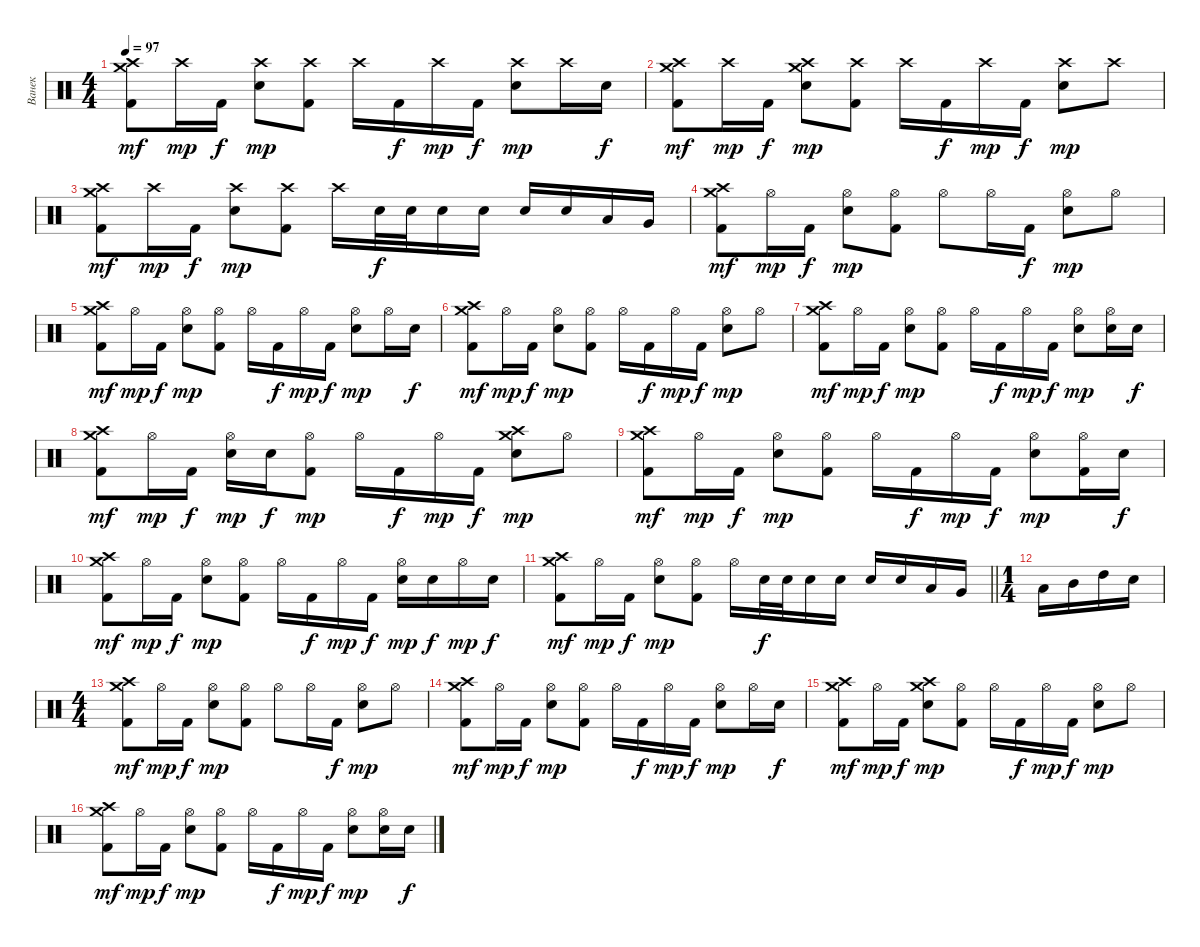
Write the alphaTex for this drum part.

\track ("Ванек" "Ванек") {instrument percussion}
\staff {score}
\articulation defaults
\ts (4 4)
\tempo 97
\clef neutral
\ks c
("Crash high (hit)" "Crash medium (hit)" "Kick (hit) 2").8{dy mf} "Crash high (hit)".16{dy mp} "Kick (hit) 2".16{dy f} ("Crash high (hit)" "Snare (hit) 2").8{dy mp} ("Crash high (hit)" "Kick (hit) 2").8 "Crash high (hit)".16 "Kick (hit) 2".16{dy f} "Crash high (hit)".16{dy mp} "Kick (hit) 2".16{dy f} ("Crash high (hit)" "Snare (hit) 2").8{dy mp} "Crash high (hit)".16 "Snare (hit) 2".16{dy f} |
("Crash high (hit)" "Crash medium (hit)" "Kick (hit) 2").8{dy mf} "Crash high (hit)".16{dy mp} "Kick (hit) 2".16{dy f} ("Crash high (hit)" "Crash medium (hit)" "Snare (hit) 2").8{dy mp} ("Crash high (hit)" "Kick (hit) 2").8 "Crash high (hit)".16 "Kick (hit) 2".16{dy f} "Crash high (hit)".16{dy mp} "Kick (hit) 2".16{dy f} ("Crash high (hit)" "Snare (hit) 2").8{dy mp} "Crash high (hit)".8 |
("Crash high (hit)" "Crash medium (hit)" "Kick (hit) 2").8{dy mf} "Crash high (hit)".16{dy mp} "Kick (hit) 2".16{dy f} ("Crash high (hit)" "Snare (hit) 2").8{dy mp} ("Crash high (hit)" "Kick (hit) 2").8 "Crash high (hit)".16 "Snare (hit) 2".32{dy f} "Snare (hit) 2".32 "Snare (hit) 2".16 "Snare (hit) 2".16 "Snare (hit) 2".16 "Snare (hit) 2".16 "Low Floor Tom (hit)".16 "Very Low Tom (hit)".16 |
("Crash high (hit)" "Crash medium (hit)" "Kick (hit) 2").8{dy mf} "Hi-Hat (open)".16{dy mp} "Kick (hit) 2".16{dy f} ("Hi-Hat (open)" "Snare (hit) 2").8{dy mp} ("Hi-Hat (open)" "Kick (hit) 2").8 "Hi-Hat (open)".8 "Hi-Hat (open)".16 "Kick (hit) 2".16{dy f} ("Hi-Hat (open)" "Snare (hit) 2").8{dy mp} "Hi-Hat (open)".8 |
("Crash high (hit)" "Crash medium (hit)" "Kick (hit) 2").8{dy mf} "Hi-Hat (open)".16{dy mp} "Kick (hit) 2".16{dy f} ("Hi-Hat (open)" "Snare (hit) 2").8{dy mp} ("Hi-Hat (open)" "Kick (hit) 2").8 "Hi-Hat (open)".16 "Kick (hit) 2".16{dy f} "Hi-Hat (open)".16{dy mp} "Kick (hit) 2".16{dy f} ("Hi-Hat (open)" "Snare (hit) 2").8{dy mp} "Hi-Hat (open)".16 "Snare (hit) 2".16{dy f} |
("Crash high (hit)" "Crash medium (hit)" "Kick (hit) 2").8{dy mf} "Hi-Hat (open)".16{dy mp} "Kick (hit) 2".16{dy f} ("Hi-Hat (open)" "Snare (hit) 2").8{dy mp} ("Hi-Hat (open)" "Kick (hit) 2").8 "Hi-Hat (open)".16 "Kick (hit) 2".16{dy f} "Hi-Hat (open)".16{dy mp} "Kick (hit) 2".16{dy f} ("Hi-Hat (open)" "Snare (hit) 2").8{dy mp} "Hi-Hat (open)".8 |
("Crash high (hit)" "Crash medium (hit)" "Kick (hit) 2").8{dy mf} "Hi-Hat (open)".16{dy mp} "Kick (hit) 2".16{dy f} ("Hi-Hat (open)" "Snare (hit) 2").8{dy mp} ("Hi-Hat (open)" "Kick (hit) 2").8 "Hi-Hat (open)".16 "Kick (hit) 2".16{dy f} "Hi-Hat (open)".16{dy mp} "Kick (hit) 2".16{dy f} ("Hi-Hat (open)" "Snare (hit) 2").8{dy mp} ("Hi-Hat (open)" "Snare (hit) 2").16 "Snare (hit) 2".16{dy f} |
("Crash high (hit)" "Crash medium (hit)" "Kick (hit) 2").8{dy mf} "Hi-Hat (open)".16{dy mp} "Kick (hit) 2".16{dy f} ("Hi-Hat (open)" "Snare (hit) 2").16{dy mp} "Snare (hit) 2".16{dy f} ("Hi-Hat (open)" "Kick (hit) 2").8{dy mp} "Hi-Hat (open)".16 "Kick (hit) 2".16{dy f} "Hi-Hat (open)".16{dy mp} "Kick (hit) 2".16{dy f} ("Crash high (hit)" "Crash medium (hit)" "Snare (hit) 2").8{dy mp} "Hi-Hat (open)".8 |
("Crash high (hit)" "Crash medium (hit)" "Kick (hit) 2").8{dy mf} "Hi-Hat (open)".16{dy mp} "Kick (hit) 2".16{dy f} ("Hi-Hat (open)" "Snare (hit) 2").8{dy mp} ("Hi-Hat (open)" "Kick (hit) 2").8 "Hi-Hat (open)".16 "Kick (hit) 2".16{dy f} "Hi-Hat (open)".16{dy mp} "Kick (hit) 2".16{dy f} ("Hi-Hat (open)" "Snare (hit) 2").8{dy mp} ("Hi-Hat (open)" "Kick (hit) 2").16 "Snare (hit) 2".16{dy f} |
("Crash high (hit)" "Crash medium (hit)" "Kick (hit) 2").8{dy mf} "Hi-Hat (open)".16{dy mp} "Kick (hit) 2".16{dy f} ("Hi-Hat (open)" "Snare (hit) 2").8{dy mp} ("Hi-Hat (open)" "Kick (hit) 2").8 "Hi-Hat (open)".16 "Kick (hit) 2".16{dy f} "Hi-Hat (open)".16{dy mp} "Kick (hit) 2".16{dy f} ("Hi-Hat (open)" "Snare (hit) 2").16{dy mp} "Snare (hit) 2".16{dy f} "Hi-Hat (open)".16{dy mp} "Snare (hit) 2".16{dy f} |
\barLineRight lightlight
("Crash high (hit)" "Crash medium (hit)" "Kick (hit) 2").8{dy mf} "Hi-Hat (open)".16{dy mp} "Kick (hit) 2".16{dy f} ("Hi-Hat (open)" "Snare (hit) 2").8{dy mp} ("Hi-Hat (open)" "Kick (hit) 2").8 "Hi-Hat (open)".16 "Snare (hit) 2".32{dy f} "Snare (hit) 2".32 "Snare (hit) 2".16 "Snare (hit) 2".16 "Snare (hit) 2".16 "Snare (hit) 2".16 "Low Floor Tom (hit)".16 "Very Low Tom (hit)".16 |
\ts (1 4)
"Low Tom (hit)".16 "Mid Tom (hit)".16 "High Tom (hit)".16 "Snare (hit) 2".16 |
\ts (4 4)
("Crash high (hit)" "Crash medium (hit)" "Kick (hit) 2").8{dy mf} "Hi-Hat (open)".16{dy mp} "Kick (hit) 2".16{dy f} ("Hi-Hat (open)" "Snare (hit) 2").8{dy mp} ("Hi-Hat (open)" "Kick (hit) 2").8 "Hi-Hat (open)".8 "Hi-Hat (open)".16 "Kick (hit) 2".16{dy f} ("Hi-Hat (open)" "Snare (hit) 2").8{dy mp} "Hi-Hat (open)".8 |
("Crash high (hit)" "Crash medium (hit)" "Kick (hit) 2").8{dy mf} "Hi-Hat (open)".16{dy mp} "Kick (hit) 2".16{dy f} ("Hi-Hat (open)" "Snare (hit) 2").8{dy mp} ("Hi-Hat (open)" "Kick (hit) 2").8 "Hi-Hat (open)".16 "Kick (hit) 2".16{dy f} "Hi-Hat (open)".16{dy mp} "Kick (hit) 2".16{dy f} ("Hi-Hat (open)" "Snare (hit) 2").8{dy mp} "Hi-Hat (open)".16 "Snare (hit) 2".16{dy f} |
("Crash high (hit)" "Crash medium (hit)" "Kick (hit) 2").8{dy mf} "Hi-Hat (open)".16{dy mp} "Kick (hit) 2".16{dy f} ("Crash high (hit)" "Crash medium (hit)" "Snare (hit) 2").8{dy mp} ("Hi-Hat (open)" "Kick (hit) 2").8 "Hi-Hat (open)".16 "Kick (hit) 2".16{dy f} "Hi-Hat (open)".16{dy mp} "Kick (hit) 2".16{dy f} ("Hi-Hat (open)" "Snare (hit) 2").8{dy mp} "Hi-Hat (open)".8 |
("Crash high (hit)" "Crash medium (hit)" "Kick (hit) 2").8{dy mf} "Hi-Hat (open)".16{dy mp} "Kick (hit) 2".16{dy f} ("Hi-Hat (open)" "Snare (hit) 2").8{dy mp} ("Hi-Hat (open)" "Kick (hit) 2").8 "Hi-Hat (open)".16 "Kick (hit) 2".16{dy f} "Hi-Hat (open)".16{dy mp} "Kick (hit) 2".16{dy f} ("Hi-Hat (open)" "Snare (hit) 2").8{dy mp} ("Hi-Hat (open)" "Snare (hit) 2").16 "Snare (hit) 2".16{dy f}
